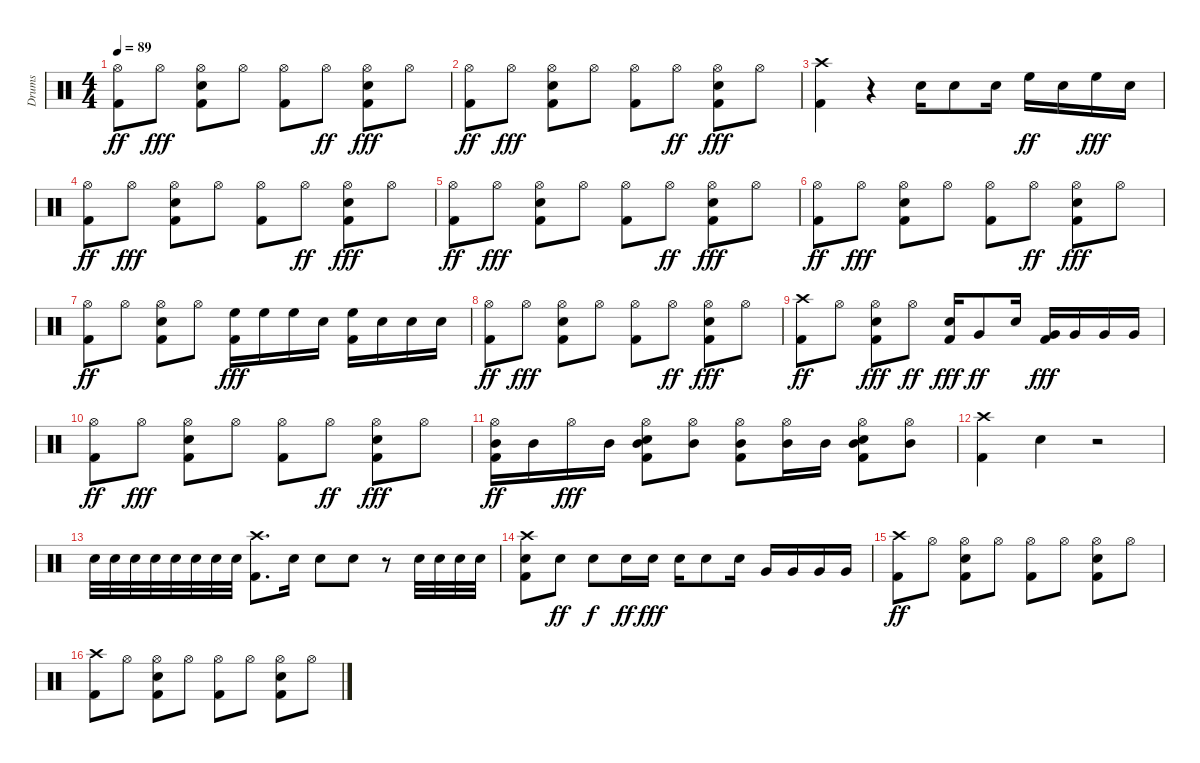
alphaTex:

\track ("Drums" "Drums") {instrument percussion}
\staff {score}
\articulation defaults
\ts (4 4)
\tempo 89
\clef neutral
\ks c
("Kick (hit) 2" "Hi-Hat (open)").8{dy ff} "Hi-Hat (open)".8{dy fff} ("Kick (hit) 2" "Snare (hit) 2" "Hi-Hat (open)").8 "Hi-Hat (open)".8 ("Kick (hit) 2" "Hi-Hat (open)").8 "Hi-Hat (open)".8{dy ff} ("Kick (hit) 2" "Hi-Hat (open)" "Snare (hit) 2").8{dy fff} "Hi-Hat (open)".8 |
("Kick (hit) 2" "Hi-Hat (open)").8{dy ff} "Hi-Hat (open)".8{dy fff} ("Kick (hit) 2" "Snare (hit) 2" "Hi-Hat (open)").8 "Hi-Hat (open)".8 ("Kick (hit) 2" "Hi-Hat (open)").8 "Hi-Hat (open)".8{dy ff} ("Kick (hit) 2" "Hi-Hat (open)" "Snare (hit) 2").8{dy fff} "Hi-Hat (open)".8 |
("Crash high (hit)" "Kick (hit) 2").4 r.4 "Snare (hit) 2".16 "Snare (hit) 2".8 "Snare (hit) 2".16 "High Floor Tom (hit)".16{dy ff} "Snare (hit) 2".16 "High Floor Tom (hit)".16{dy fff} "Snare (hit) 2".16 |
("Kick (hit) 2" "Hi-Hat (open)").8{dy ff} "Hi-Hat (open)".8{dy fff} ("Kick (hit) 2" "Snare (hit) 2" "Hi-Hat (open)").8 "Hi-Hat (open)".8 ("Kick (hit) 2" "Hi-Hat (open)").8 "Hi-Hat (open)".8{dy ff} ("Kick (hit) 2" "Hi-Hat (open)" "Snare (hit) 2").8{dy fff} "Hi-Hat (open)".8 |
("Kick (hit) 2" "Hi-Hat (open)").8{dy ff} "Hi-Hat (open)".8{dy fff} ("Kick (hit) 2" "Snare (hit) 2" "Hi-Hat (open)").8 "Hi-Hat (open)".8 ("Kick (hit) 2" "Hi-Hat (open)").8 "Hi-Hat (open)".8{dy ff} ("Kick (hit) 2" "Hi-Hat (open)" "Snare (hit) 2").8{dy fff} "Hi-Hat (open)".8 |
("Kick (hit) 2" "Hi-Hat (open)").8{dy ff} "Hi-Hat (open)".8{dy fff} ("Kick (hit) 2" "Snare (hit) 2" "Hi-Hat (open)").8 "Hi-Hat (open)".8 ("Kick (hit) 2" "Hi-Hat (open)").8 "Hi-Hat (open)".8{dy ff} ("Kick (hit) 2" "Hi-Hat (open)" "Snare (hit) 2").8{dy fff} "Hi-Hat (open)".8 |
("Kick (hit) 2" "Hi-Hat (open)").8{dy ff} "Hi-Hat (open)".8 ("Kick (hit) 2" "Snare (hit) 2" "Hi-Hat (open)").8 "Hi-Hat (open)".8 ("Kick (hit) 2" "High Floor Tom (hit)").16{dy fff} "High Floor Tom (hit)".16 "High Floor Tom (hit)".16 "Snare (hit) 2".16 ("Kick (hit) 2" "High Floor Tom (hit)").16 "Snare (hit) 2".16 "Snare (hit) 2".16 "Snare (hit) 2".16 |
("Kick (hit) 2" "Hi-Hat (open)").8{dy ff} "Hi-Hat (open)".8{dy fff} ("Kick (hit) 2" "Snare (hit) 2" "Hi-Hat (open)").8 "Hi-Hat (open)".8 ("Kick (hit) 2" "Hi-Hat (open)").8 "Hi-Hat (open)".8{dy ff} ("Kick (hit) 2" "Hi-Hat (open)" "Snare (hit) 2").8{dy fff} "Hi-Hat (open)".8 |
("Kick (hit) 2" "Crash high (hit)").8{dy ff} "Hi-Hat (open)".8 ("Kick (hit) 2" "Hi-Hat (open)" "Snare (hit) 2").8{dy fff} "Hi-Hat (open)".8{dy ff} ("Kick (hit) 2" "Snare (hit) 2").16{dy fff} "Very Low Tom (hit)".8{dy ff} "Snare (hit) 2".16 ("Kick (hit) 2" "Very Low Tom (hit)").16{dy fff} "Very Low Tom (hit)".16 "Very Low Tom (hit)".16 "Very Low Tom (hit)".16 |
("Kick (hit) 2" "Hi-Hat (open)").8{dy ff} "Hi-Hat (open)".8{dy fff} ("Kick (hit) 2" "Snare (hit) 2" "Hi-Hat (open)").8 "Hi-Hat (open)".8 ("Kick (hit) 2" "Hi-Hat (open)").8 "Hi-Hat (open)".8{dy ff} ("Kick (hit) 2" "Hi-Hat (open)" "Snare (hit) 2").8{dy fff} "Hi-Hat (open)".8 |
("Kick (hit) 2" "Hi-Hat (open)" "Mid Tom (hit)").16{dy ff} "Mid Tom (hit)".16 "Hi-Hat (open)".16{dy fff} "Mid Tom (hit)".16 ("Kick (hit) 2" "Snare (hit) 2" "Hi-Hat (open)" "Mid Tom (hit)").8 ("Hi-Hat (open)" "Mid Tom (hit)").8 ("Kick (hit) 2" "Hi-Hat (open)" "Mid Tom (hit)").8 ("Hi-Hat (open)" "Mid Tom (hit)").16 "Mid Tom (hit)".16 ("Kick (hit) 2" "Hi-Hat (open)" "Snare (hit) 2" "Mid Tom (hit)").8 ("Hi-Hat (open)" "Mid Tom (hit)").8 |
("Crash high (hit)" "Kick (hit) 2").4 "Snare (hit) 2".4 r.2 |
"Snare (hit) 2".32 "Snare (hit) 2".32 "Snare (hit) 2".32 "Snare (hit) 2".32 "Snare (hit) 2".32 "Snare (hit) 2".32 "Snare (hit) 2".32 "Snare (hit) 2".32 ("Kick (hit) 2" "Crash high (hit)").8{d} "Snare (hit) 2".16 "Snare (hit) 2".8 "Snare (hit) 2".8 r.8 "Snare (hit) 2".32 "Snare (hit) 2".32 "Snare (hit) 2".32 "Snare (hit) 2".32 |
("Kick (hit) 2" "Crash high (hit)" "Snare (hit) 2").8 "Snare (hit) 2".8{dy ff} "Snare (hit) 2".8{dy f} "Snare (hit) 2".16{dy ff} "Snare (hit) 2".16{dy fff} "Snare (hit) 2".16 "Snare (hit) 2".8 "Snare (hit) 2".16 "Very Low Tom (hit)".16 "Very Low Tom (hit)".16 "Very Low Tom (hit)".16 "Very Low Tom (hit)".16 |
("Kick (hit) 2" "Crash high (hit)").8{dy ff volume 14} "Hi-Hat (open)".8{volume 14} ("Kick (hit) 2" "Hi-Hat (open)" "Snare (hit) 2").8{volume 13} "Hi-Hat (open)".8{volume 13} ("Kick (hit) 2" "Hi-Hat (open)").8{volume 13} "Hi-Hat (open)".8{volume 13} ("Kick (hit) 2" "Snare (hit) 2" "Hi-Hat (open)").8{volume 13} "Hi-Hat (open)".8{volume 12} |
("Kick (hit) 2" "Crash high (hit)").8{volume 12} "Hi-Hat (open)".8{volume 12} ("Kick (hit) 2" "Hi-Hat (open)" "Snare (hit) 2").8{volume 12} "Hi-Hat (open)".8{volume 12} ("Kick (hit) 2" "Hi-Hat (open)").8{volume 12} "Hi-Hat (open)".8{volume 11} ("Kick (hit) 2" "Snare (hit) 2" "Hi-Hat (open)").8{volume 11} "Hi-Hat (open)".8{volume 11}
